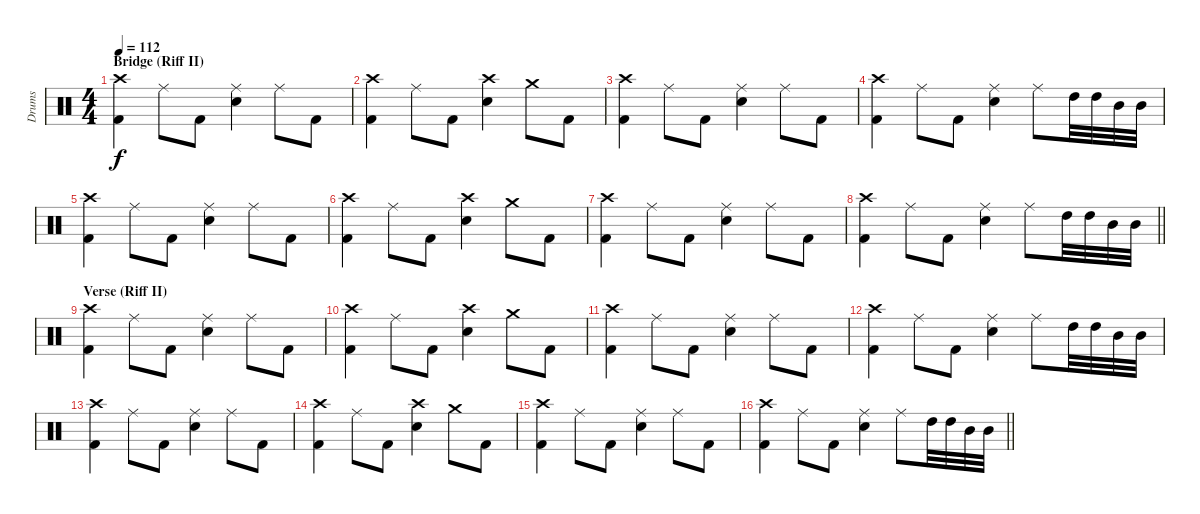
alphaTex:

\track ("Drums" "Drums") {instrument percussion}
\staff {score}
\articulation defaults
\ts (4 4)
\section ("" "Bridge (Riff II)")
\tempo 112
\clef neutral
\ks c
("Crash high (hit)" "Kick (hit) 2").4{dy f} "Ride (middle)".8 "Kick (hit) 2".8 ("Ride (middle)" "Electric Snare (hit)").4 "Ride (middle)".8 "Kick (hit) 2".8 |
("Crash high (hit)" "Kick (hit) 2").4 "Ride (middle)".8 "Kick (hit) 2".8 ("Crash high (hit)" "Electric Snare (hit)").4 "Crash medium (hit)".8 "Kick (hit) 2".8 |
("Crash high (hit)" "Kick (hit) 2").4 "Ride (middle)".8 "Kick (hit) 2".8 ("Ride (middle)" "Electric Snare (hit)").4 "Ride (middle)".8 "Kick (hit) 2".8 |
("Crash high (hit)" "Kick (hit) 2").4 "Ride (middle)".8 "Kick (hit) 2".8 ("Ride (middle)" "Electric Snare (hit)").4 "Ride (middle)".8 "High Tom (hit)".32 "High Tom (hit)".32 "Mid Tom (hit)".32 "Mid Tom (hit)".32 |
("Crash high (hit)" "Kick (hit) 2").4 "Ride (middle)".8 "Kick (hit) 2".8 ("Ride (middle)" "Electric Snare (hit)").4 "Ride (middle)".8 "Kick (hit) 2".8 |
("Crash high (hit)" "Kick (hit) 2").4 "Ride (middle)".8 "Kick (hit) 2".8 ("Crash high (hit)" "Electric Snare (hit)").4 "Crash medium (hit)".8 "Kick (hit) 2".8 |
("Crash high (hit)" "Kick (hit) 2").4 "Ride (middle)".8 "Kick (hit) 2".8 ("Ride (middle)" "Electric Snare (hit)").4 "Ride (middle)".8 "Kick (hit) 2".8 |
\barLineRight lightlight
("Crash high (hit)" "Kick (hit) 2").4 "Ride (middle)".8 "Kick (hit) 2".8 ("Ride (middle)" "Electric Snare (hit)").4 "Ride (middle)".8 "High Tom (hit)".32 "High Tom (hit)".32 "Mid Tom (hit)".32 "Mid Tom (hit)".32 |
\section ("" "Verse (Riff II)")
("Crash high (hit)" "Kick (hit) 2").4 "Ride (middle)".8 "Kick (hit) 2".8 ("Ride (middle)" "Electric Snare (hit)").4 "Ride (middle)".8 "Kick (hit) 2".8 |
("Crash high (hit)" "Kick (hit) 2").4 "Ride (middle)".8 "Kick (hit) 2".8 ("Crash high (hit)" "Electric Snare (hit)").4 "Crash medium (hit)".8 "Kick (hit) 2".8 |
("Crash high (hit)" "Kick (hit) 2").4 "Ride (middle)".8 "Kick (hit) 2".8 ("Ride (middle)" "Electric Snare (hit)").4 "Ride (middle)".8 "Kick (hit) 2".8 |
("Crash high (hit)" "Kick (hit) 2").4 "Ride (middle)".8 "Kick (hit) 2".8 ("Ride (middle)" "Electric Snare (hit)").4 "Ride (middle)".8 "High Tom (hit)".32 "High Tom (hit)".32 "Mid Tom (hit)".32 "Mid Tom (hit)".32 |
("Crash high (hit)" "Kick (hit) 2").4 "Ride (middle)".8 "Kick (hit) 2".8 ("Ride (middle)" "Electric Snare (hit)").4 "Ride (middle)".8 "Kick (hit) 2".8 |
("Crash high (hit)" "Kick (hit) 2").4 "Ride (middle)".8 "Kick (hit) 2".8 ("Crash high (hit)" "Electric Snare (hit)").4 "Crash medium (hit)".8 "Kick (hit) 2".8 |
("Crash high (hit)" "Kick (hit) 2").4 "Ride (middle)".8 "Kick (hit) 2".8 ("Ride (middle)" "Electric Snare (hit)").4 "Ride (middle)".8 "Kick (hit) 2".8 |
\barLineRight lightlight
("Crash high (hit)" "Kick (hit) 2").4 "Ride (middle)".8 "Kick (hit) 2".8 ("Ride (middle)" "Electric Snare (hit)").4 "Ride (middle)".8 "High Tom (hit)".32 "High Tom (hit)".32 "Mid Tom (hit)".32 "Mid Tom (hit)".32
